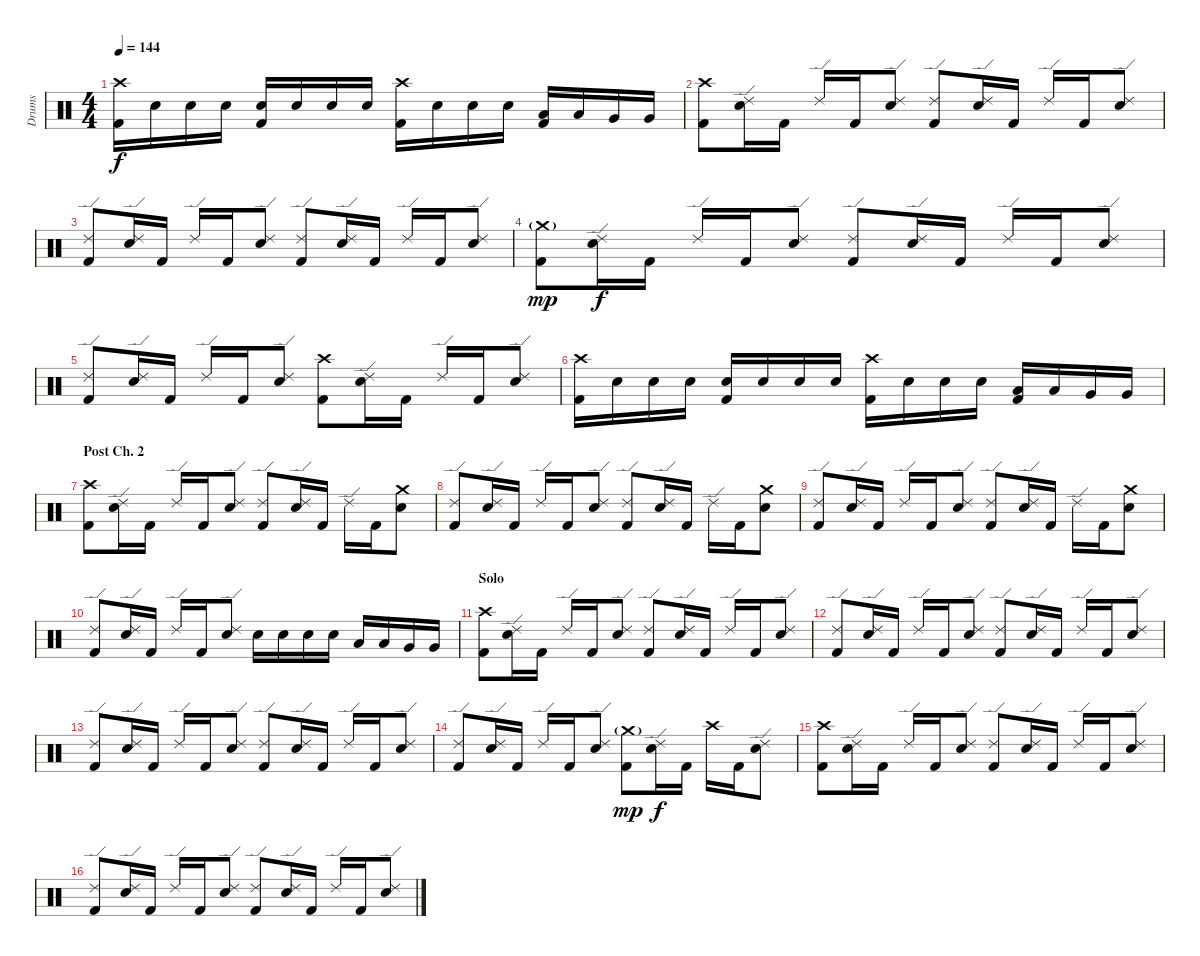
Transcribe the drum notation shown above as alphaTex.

\track ("Drums" "Drums") {instrument percussion}
\staff {score}
\articulation defaults
\ts (4 4)
\tempo 144
\clef neutral
\ks c
("Crash high (hit)" "Kick (hit) 2").16{dy f} "Electric Snare (hit)".16 "Electric Snare (hit)".16 "Electric Snare (hit)".16 ("Electric Snare (hit)" "Kick (hit) 2").16 "Electric Snare (hit)".16 "Electric Snare (hit)".16 "Electric Snare (hit)".16 ("Crash high (hit)" "Kick (hit) 2").16 "Electric Snare (hit)".16 "Electric Snare (hit)".16 "Electric Snare (hit)".16 ("Low Tom (hit)" "Kick (hit) 2").16 "Low Tom (hit)".16 "Very Low Tom (hit)".16 "Very Low Tom (hit)".16 |
("Crash high (hit)" "Kick (hit) 2").8 ("Ride (edge) 2" "Electric Snare (hit)").16 "Kick (hit) 2".16 "Ride (edge) 2".16 "Kick (hit) 2".16 ("Ride (edge) 2" "Electric Snare (hit)").8 ("Ride (edge) 2" "Kick (hit) 2").8 ("Ride (edge) 2" "Electric Snare (hit)").16 "Kick (hit) 2".16 "Ride (edge) 2".16 "Kick (hit) 2".16 ("Ride (edge) 2" "Electric Snare (hit)").8 |
("Ride (edge) 2" "Kick (hit) 2").8 ("Ride (edge) 2" "Electric Snare (hit)").16 "Kick (hit) 2".16 "Ride (edge) 2".16 "Kick (hit) 2".16 ("Ride (edge) 2" "Electric Snare (hit)").8 ("Ride (edge) 2" "Kick (hit) 2").8 ("Ride (edge) 2" "Electric Snare (hit)").16 "Kick (hit) 2".16 "Ride (edge) 2".16 "Kick (hit) 2".16 ("Ride (edge) 2" "Electric Snare (hit)").8 |
("Crash medium (hit)"{g} "Kick (hit) 2").8{dy mp} ("Ride (edge) 2" "Electric Snare (hit)").16{dy f} "Kick (hit) 2".16 "Ride (edge) 2".16 "Kick (hit) 2".16 ("Ride (edge) 2" "Electric Snare (hit)").8 ("Ride (edge) 2" "Kick (hit) 2").8 ("Ride (edge) 2" "Electric Snare (hit)").16 "Kick (hit) 2".16 "Ride (edge) 2".16 "Kick (hit) 2".16 ("Ride (edge) 2" "Electric Snare (hit)").8 |
("Ride (edge) 2" "Kick (hit) 2").8 ("Ride (edge) 2" "Electric Snare (hit)").16 "Kick (hit) 2".16 "Ride (edge) 2".16 "Kick (hit) 2".16 ("Ride (edge) 2" "Electric Snare (hit)").8 ("Crash high (hit)" "Kick (hit) 2").8 ("Ride (edge) 2" "Electric Snare (hit)").16 "Kick (hit) 2".16 "Ride (edge) 2".16 "Kick (hit) 2".16 ("Ride (edge) 2" "Electric Snare (hit)").8 |
("Crash high (hit)" "Kick (hit) 2").16 "Electric Snare (hit)".16 "Electric Snare (hit)".16 "Electric Snare (hit)".16 ("Electric Snare (hit)" "Kick (hit) 2").16 "Electric Snare (hit)".16 "Electric Snare (hit)".16 "Electric Snare (hit)".16 ("Crash high (hit)" "Kick (hit) 2").16 "Electric Snare (hit)".16 "Electric Snare (hit)".16 "Electric Snare (hit)".16 ("Low Tom (hit)" "Kick (hit) 2").16 "Low Tom (hit)".16 "Very Low Tom (hit)".16 "Very Low Tom (hit)".16 |
\section ("" "Post Ch. 2")
("Crash high (hit)" "Kick (hit) 2").8 ("Ride (edge) 2" "Electric Snare (hit)").16 "Kick (hit) 2".16 "Ride (edge) 2".16 "Kick (hit) 2".16 ("Ride (edge) 2" "Electric Snare (hit)").8 ("Ride (edge) 2" "Kick (hit) 2").8 ("Ride (edge) 2" "Electric Snare (hit)").16 "Kick (hit) 2".16 "Ride (edge) 2".16 "Kick (hit) 2".16 ("Crash medium (hit)" "Electric Snare (hit)").8 |
("Ride (edge) 2" "Kick (hit) 2").8 ("Ride (edge) 2" "Electric Snare (hit)").16 "Kick (hit) 2".16 "Ride (edge) 2".16 "Kick (hit) 2".16 ("Ride (edge) 2" "Electric Snare (hit)").8 ("Ride (edge) 2" "Kick (hit) 2").8 ("Ride (edge) 2" "Electric Snare (hit)").16 "Kick (hit) 2".16 "Ride (edge) 2".16 "Kick (hit) 2".16 ("Crash medium (hit)" "Electric Snare (hit)").8 |
("Ride (edge) 2" "Kick (hit) 2").8 ("Ride (edge) 2" "Electric Snare (hit)").16 "Kick (hit) 2".16 "Ride (edge) 2".16 "Kick (hit) 2".16 ("Ride (edge) 2" "Electric Snare (hit)").8 ("Ride (edge) 2" "Kick (hit) 2").8 ("Ride (edge) 2" "Electric Snare (hit)").16 "Kick (hit) 2".16 "Ride (edge) 2".16 "Kick (hit) 2".16 ("Crash medium (hit)" "Electric Snare (hit)").8 |
("Ride (edge) 2" "Kick (hit) 2").8 ("Ride (edge) 2" "Electric Snare (hit)").16 "Kick (hit) 2".16 "Ride (edge) 2".16 "Kick (hit) 2".16 ("Ride (edge) 2" "Electric Snare (hit)").8 "Electric Snare (hit)".16 "Electric Snare (hit)".16 "Electric Snare (hit)".16 "Electric Snare (hit)".16 "Low Tom (hit)".16 "Low Tom (hit)".16 "Very Low Tom (hit)".16 "Very Low Tom (hit)".16 |
\section ("" "Solo")
("Crash high (hit)" "Kick (hit) 2").8 ("Ride (edge) 2" "Electric Snare (hit)").16 "Kick (hit) 2".16 "Ride (edge) 2".16 "Kick (hit) 2".16 ("Ride (edge) 2" "Electric Snare (hit)").8 ("Ride (edge) 2" "Kick (hit) 2").8 ("Ride (edge) 2" "Electric Snare (hit)").16 "Kick (hit) 2".16 "Ride (edge) 2".16 "Kick (hit) 2".16 ("Ride (edge) 2" "Electric Snare (hit)").8 |
("Ride (edge) 2" "Kick (hit) 2").8 ("Ride (edge) 2" "Electric Snare (hit)").16 "Kick (hit) 2".16 "Ride (edge) 2".16 "Kick (hit) 2".16 ("Ride (edge) 2" "Electric Snare (hit)").8 ("Ride (edge) 2" "Kick (hit) 2").8 ("Ride (edge) 2" "Electric Snare (hit)").16 "Kick (hit) 2".16 "Ride (edge) 2".16 "Kick (hit) 2".16 ("Ride (edge) 2" "Electric Snare (hit)").8 |
("Ride (edge) 2" "Kick (hit) 2").8 ("Ride (edge) 2" "Electric Snare (hit)").16 "Kick (hit) 2".16 "Ride (edge) 2".16 "Kick (hit) 2".16 ("Ride (edge) 2" "Electric Snare (hit)").8 ("Ride (edge) 2" "Kick (hit) 2").8 ("Ride (edge) 2" "Electric Snare (hit)").16 "Kick (hit) 2".16 "Ride (edge) 2".16 "Kick (hit) 2".16 ("Ride (edge) 2" "Electric Snare (hit)").8 |
("Ride (edge) 2" "Kick (hit) 2").8 ("Ride (edge) 2" "Electric Snare (hit)").16 "Kick (hit) 2".16 "Ride (edge) 2".16 "Kick (hit) 2".16 ("Ride (edge) 2" "Electric Snare (hit)").8 ("Crash medium (hit)"{g} "Kick (hit) 2").8{dy mp} ("Ride (edge) 2" "Electric Snare (hit)").16{dy f} "Kick (hit) 2".16 "Crash high (hit)".16 "Kick (hit) 2".16 ("Ride (edge) 2" "Electric Snare (hit)").8 |
("Crash high (hit)" "Kick (hit) 2").8 ("Ride (edge) 2" "Electric Snare (hit)").16 "Kick (hit) 2".16 "Ride (edge) 2".16 "Kick (hit) 2".16 ("Ride (edge) 2" "Electric Snare (hit)").8 ("Ride (edge) 2" "Kick (hit) 2").8 ("Ride (edge) 2" "Electric Snare (hit)").16 "Kick (hit) 2".16 "Ride (edge) 2".16 "Kick (hit) 2".16 ("Ride (edge) 2" "Electric Snare (hit)").8 |
("Ride (edge) 2" "Kick (hit) 2").8 ("Ride (edge) 2" "Electric Snare (hit)").16 "Kick (hit) 2".16 "Ride (edge) 2".16 "Kick (hit) 2".16 ("Ride (edge) 2" "Electric Snare (hit)").8 ("Ride (edge) 2" "Kick (hit) 2").8 ("Ride (edge) 2" "Electric Snare (hit)").16 "Kick (hit) 2".16 "Ride (edge) 2".16 "Kick (hit) 2".16 ("Ride (edge) 2" "Electric Snare (hit)").8
